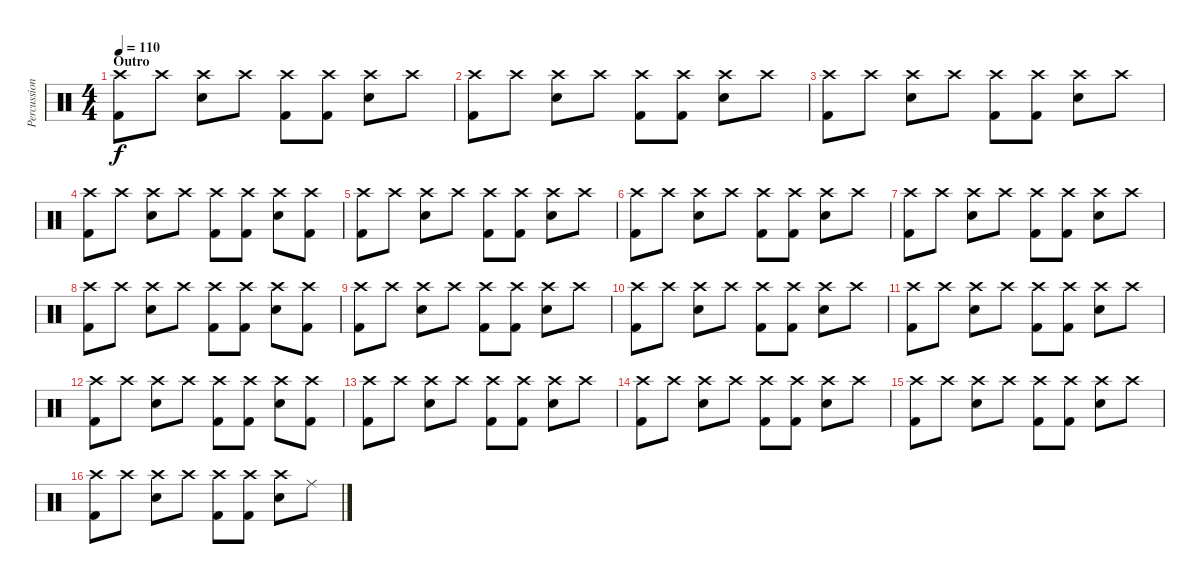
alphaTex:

\track ("Percussion" "Percussion") {instrument percussion}
\staff {score}
\articulation defaults
\ts (4 4)
\section ("" "Outro")
\tempo 110
\clef neutral
\ks c
("Crash high (hit)" "Kick (hit) 2").8{dy f} "Crash high (hit)".8 ("Crash high (hit)" "Snare (hit) 2").8 "Crash high (hit)".8 ("Crash high (hit)" "Kick (hit) 2").8 ("Crash high (hit)" "Kick (hit) 2").8 ("Crash high (hit)" "Snare (hit) 2").8 "Crash high (hit)".8 |
("Crash high (hit)" "Kick (hit) 2").8 "Crash high (hit)".8 ("Crash high (hit)" "Snare (hit) 2").8 "Crash high (hit)".8 ("Crash high (hit)" "Kick (hit) 2").8 ("Crash high (hit)" "Kick (hit) 2").8 ("Crash high (hit)" "Snare (hit) 2").8 "Crash high (hit)".8 |
("Crash high (hit)" "Kick (hit) 2").8 "Crash high (hit)".8 ("Crash high (hit)" "Snare (hit) 2").8 "Crash high (hit)".8 ("Crash high (hit)" "Kick (hit) 2").8 ("Crash high (hit)" "Kick (hit) 2").8 ("Crash high (hit)" "Snare (hit) 2").8 "Crash high (hit)".8 |
("Crash high (hit)" "Kick (hit) 2").8 "Crash high (hit)".8 ("Crash high (hit)" "Snare (hit) 2").8 "Crash high (hit)".8 ("Crash high (hit)" "Kick (hit) 2").8 ("Crash high (hit)" "Kick (hit) 2").8 ("Crash high (hit)" "Snare (hit) 2").8 ("Crash high (hit)" "Kick (hit) 2").8 |
("Crash high (hit)" "Kick (hit) 2").8 "Crash high (hit)".8 ("Crash high (hit)" "Snare (hit) 2").8 "Crash high (hit)".8 ("Crash high (hit)" "Kick (hit) 2").8 ("Crash high (hit)" "Kick (hit) 2").8 ("Crash high (hit)" "Snare (hit) 2").8 "Crash high (hit)".8 |
("Crash high (hit)" "Kick (hit) 2").8 "Crash high (hit)".8 ("Crash high (hit)" "Snare (hit) 2").8 "Crash high (hit)".8 ("Crash high (hit)" "Kick (hit) 2").8 ("Crash high (hit)" "Kick (hit) 2").8 ("Crash high (hit)" "Snare (hit) 2").8 "Crash high (hit)".8 |
("Crash high (hit)" "Kick (hit) 2").8 "Crash high (hit)".8 ("Crash high (hit)" "Snare (hit) 2").8 "Crash high (hit)".8 ("Crash high (hit)" "Kick (hit) 2").8 ("Crash high (hit)" "Kick (hit) 2").8 ("Crash high (hit)" "Snare (hit) 2").8 "Crash high (hit)".8 |
("Crash high (hit)" "Kick (hit) 2").8 "Crash high (hit)".8 ("Crash high (hit)" "Snare (hit) 2").8 "Crash high (hit)".8 ("Crash high (hit)" "Kick (hit) 2").8 ("Crash high (hit)" "Kick (hit) 2").8 ("Crash high (hit)" "Snare (hit) 2").8 ("Crash high (hit)" "Kick (hit) 2").8 |
("Crash high (hit)" "Kick (hit) 2").8 "Crash high (hit)".8 ("Crash high (hit)" "Snare (hit) 2").8 "Crash high (hit)".8 ("Crash high (hit)" "Kick (hit) 2").8 ("Crash high (hit)" "Kick (hit) 2").8 ("Crash high (hit)" "Snare (hit) 2").8 "Crash high (hit)".8 |
("Crash high (hit)" "Kick (hit) 2").8 "Crash high (hit)".8 ("Crash high (hit)" "Snare (hit) 2").8 "Crash high (hit)".8 ("Crash high (hit)" "Kick (hit) 2").8 ("Crash high (hit)" "Kick (hit) 2").8 ("Crash high (hit)" "Snare (hit) 2").8 "Crash high (hit)".8 |
("Crash high (hit)" "Kick (hit) 2").8 "Crash high (hit)".8 ("Crash high (hit)" "Snare (hit) 2").8 "Crash high (hit)".8 ("Crash high (hit)" "Kick (hit) 2").8 ("Crash high (hit)" "Kick (hit) 2").8 ("Crash high (hit)" "Snare (hit) 2").8 "Crash high (hit)".8 |
("Crash high (hit)" "Kick (hit) 2").8 "Crash high (hit)".8 ("Crash high (hit)" "Snare (hit) 2").8 "Crash high (hit)".8 ("Crash high (hit)" "Kick (hit) 2").8 ("Crash high (hit)" "Kick (hit) 2").8 ("Crash high (hit)" "Snare (hit) 2").8 ("Crash high (hit)" "Kick (hit) 2").8 |
("Crash high (hit)" "Kick (hit) 2").8 "Crash high (hit)".8 ("Crash high (hit)" "Snare (hit) 2").8 "Crash high (hit)".8 ("Crash high (hit)" "Kick (hit) 2").8 ("Crash high (hit)" "Kick (hit) 2").8 ("Crash high (hit)" "Snare (hit) 2").8 "Crash high (hit)".8 |
("Crash high (hit)" "Kick (hit) 2").8 "Crash high (hit)".8 ("Crash high (hit)" "Snare (hit) 2").8 "Crash high (hit)".8 ("Crash high (hit)" "Kick (hit) 2").8 ("Crash high (hit)" "Kick (hit) 2").8 ("Crash high (hit)" "Snare (hit) 2").8 "Crash high (hit)".8 |
("Crash high (hit)" "Kick (hit) 2").8 "Crash high (hit)".8 ("Crash high (hit)" "Snare (hit) 2").8 "Crash high (hit)".8 ("Crash high (hit)" "Kick (hit) 2").8 ("Crash high (hit)" "Kick (hit) 2").8 ("Crash high (hit)" "Snare (hit) 2").8 "Crash high (hit)".8 |
("Crash high (hit)" "Kick (hit) 2").8 "Crash high (hit)".8 ("Crash high (hit)" "Snare (hit) 2").8 "Crash high (hit)".8 ("Crash high (hit)" "Kick (hit) 2").8 ("Crash high (hit)" "Kick (hit) 2").8 ("Crash high (hit)" "Snare (hit) 2").8 "Ride (middle)".8
